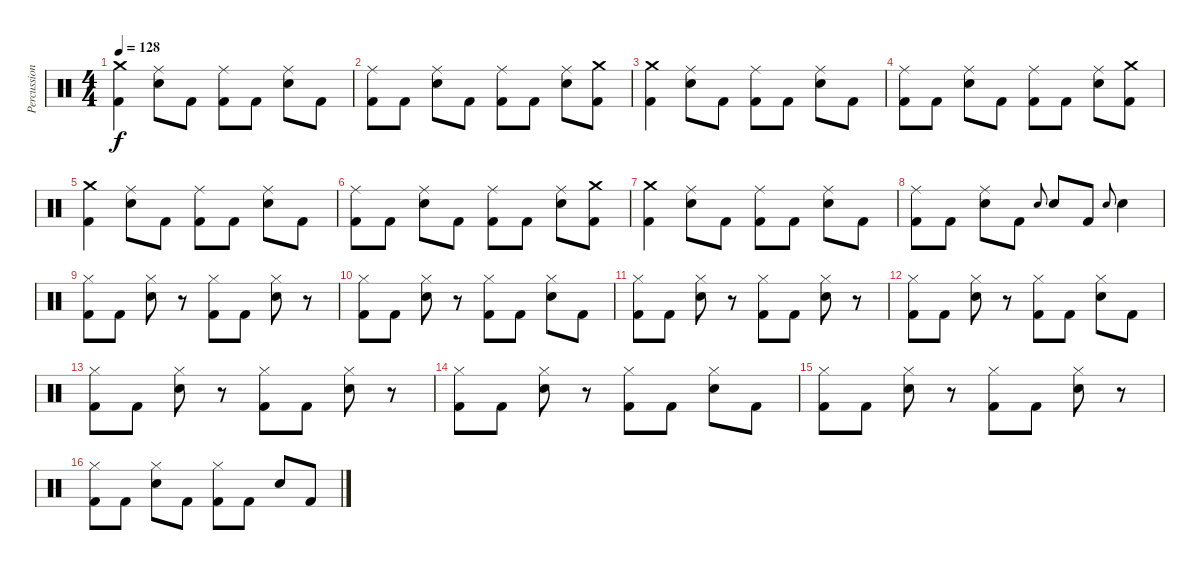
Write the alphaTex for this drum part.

\track ("Percussion" "Percussion") {instrument percussion}
\staff {score}
\articulation defaults
\ts (4 4)
\tempo 128
\clef neutral
\ks c
("Crash medium (hit)" "Kick (hit) 2").4{dy f} ("Ride (middle)" "Snare (hit) 2").8 "Kick (hit) 2".8 ("Ride (middle)" "Kick (hit) 2").8 "Kick (hit) 2".8 ("Ride (middle)" "Snare (hit) 2").8 "Kick (hit) 2".8 |
("Ride (middle)" "Kick (hit) 2").8 "Kick (hit) 2".8 ("Ride (middle)" "Snare (hit) 2").8 "Kick (hit) 2".8 ("Ride (middle)" "Kick (hit) 2").8 "Kick (hit) 2".8 ("Ride (middle)" "Snare (hit) 2").8 ("Crash medium (hit)" "Kick (hit) 2").8 |
("Crash medium (hit)" "Kick (hit) 2").4 ("Ride (middle)" "Snare (hit) 2").8 "Kick (hit) 2".8 ("Ride (middle)" "Kick (hit) 2").8 "Kick (hit) 2".8 ("Ride (middle)" "Snare (hit) 2").8 "Kick (hit) 2".8 |
("Ride (middle)" "Kick (hit) 2").8 "Kick (hit) 2".8 ("Ride (middle)" "Snare (hit) 2").8 "Kick (hit) 2".8 ("Ride (middle)" "Kick (hit) 2").8 "Kick (hit) 2".8 ("Ride (middle)" "Snare (hit) 2").8 ("Crash medium (hit)" "Kick (hit) 2").8 |
("Crash medium (hit)" "Kick (hit) 2").4 ("Ride (middle)" "Snare (hit) 2").8 "Kick (hit) 2".8 ("Ride (middle)" "Kick (hit) 2").8 "Kick (hit) 2".8 ("Ride (middle)" "Snare (hit) 2").8 "Kick (hit) 2".8 |
("Ride (middle)" "Kick (hit) 2").8 "Kick (hit) 2".8 ("Ride (middle)" "Snare (hit) 2").8 "Kick (hit) 2".8 ("Ride (middle)" "Kick (hit) 2").8 "Kick (hit) 2".8 ("Ride (middle)" "Snare (hit) 2").8 ("Crash medium (hit)" "Kick (hit) 2").8 |
("Crash medium (hit)" "Kick (hit) 2").4 ("Ride (middle)" "Snare (hit) 2").8 "Kick (hit) 2".8 ("Ride (middle)" "Kick (hit) 2").8 "Kick (hit) 2".8 ("Ride (middle)" "Snare (hit) 2").8 "Kick (hit) 2".8 |
("Ride (middle)" "Kick (hit) 2").8 "Kick (hit) 2".8 ("Ride (middle)" "Snare (hit) 2").8 "Kick (hit) 2".8 "Snare (hit) 2".8{gr onbeat} "Snare (hit) 2".8 "Kick (hit) 2".8 "Snare (hit) 2".8{gr onbeat} "Snare (hit) 2".4 |
("Hi-Hat (closed)" "Kick (hit) 2").8 "Kick (hit) 2".8 ("Hi-Hat (closed)" "Snare (hit) 2").8 r.8 ("Hi-Hat (closed)" "Kick (hit) 2").8 "Kick (hit) 2".8 ("Hi-Hat (closed)" "Snare (hit) 2").8 r.8 |
("Hi-Hat (closed)" "Kick (hit) 2").8 "Kick (hit) 2".8 ("Hi-Hat (closed)" "Snare (hit) 2").8 r.8 ("Hi-Hat (closed)" "Kick (hit) 2").8 "Kick (hit) 2".8 ("Hi-Hat (closed)" "Snare (hit) 2").8 "Kick (hit) 2".8 |
("Hi-Hat (closed)" "Kick (hit) 2").8 "Kick (hit) 2".8 ("Hi-Hat (closed)" "Snare (hit) 2").8 r.8 ("Hi-Hat (closed)" "Kick (hit) 2").8 "Kick (hit) 2".8 ("Hi-Hat (closed)" "Snare (hit) 2").8 r.8 |
("Hi-Hat (closed)" "Kick (hit) 2").8 "Kick (hit) 2".8 ("Hi-Hat (closed)" "Snare (hit) 2").8 r.8 ("Hi-Hat (closed)" "Kick (hit) 2").8 "Kick (hit) 2".8 ("Hi-Hat (closed)" "Snare (hit) 2").8 "Kick (hit) 2".8 |
("Hi-Hat (closed)" "Kick (hit) 2").8 "Kick (hit) 2".8 ("Hi-Hat (closed)" "Snare (hit) 2").8 r.8 ("Hi-Hat (closed)" "Kick (hit) 2").8 "Kick (hit) 2".8 ("Hi-Hat (closed)" "Snare (hit) 2").8 r.8 |
("Hi-Hat (closed)" "Kick (hit) 2").8 "Kick (hit) 2".8 ("Hi-Hat (closed)" "Snare (hit) 2").8 r.8 ("Hi-Hat (closed)" "Kick (hit) 2").8 "Kick (hit) 2".8 ("Hi-Hat (closed)" "Snare (hit) 2").8 "Kick (hit) 2".8 |
("Hi-Hat (closed)" "Kick (hit) 2").8 "Kick (hit) 2".8 ("Hi-Hat (closed)" "Snare (hit) 2").8 r.8 ("Hi-Hat (closed)" "Kick (hit) 2").8 "Kick (hit) 2".8 ("Hi-Hat (closed)" "Snare (hit) 2").8 r.8 |
("Hi-Hat (closed)" "Kick (hit) 2").8 "Kick (hit) 2".8 ("Hi-Hat (closed)" "Snare (hit) 2").8 "Kick (hit) 2".8 ("Hi-Hat (closed)" "Kick (hit) 2").8 "Kick (hit) 2".8 "Snare (hit) 2".8 "Kick (hit) 2".8
